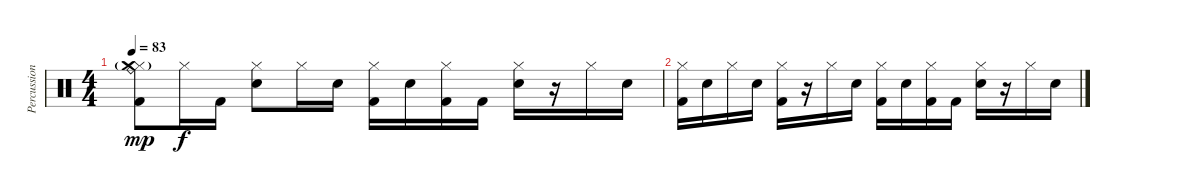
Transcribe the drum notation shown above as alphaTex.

\track ("Percussions" "Percussion") {instrument percussion}
\staff {score}
\articulation defaults
\ts (4 4)
\tempo 83
\clef neutral
\ks c
("Hi-Hat (closed)" "Kick (hit) 2" "Crash medium (hit)"{g} "Ride (bell)").8{dy mp} "Hi-Hat (closed)".16{dy f} "Kick (hit) 2".16 ("Hi-Hat (closed)" "Snare (hit) 2").8 "Hi-Hat (closed)".16 "Snare (hit) 2".16 ("Hi-Hat (closed)" "Kick (hit) 2").16 "Snare (hit) 2".16 ("Hi-Hat (closed)" "Kick (hit) 2").16 "Kick (hit) 2".16 ("Hi-Hat (closed)" "Snare (hit) 2").16 r.16 "Hi-Hat (closed)".16 "Snare (hit) 2".16 |
("Hi-Hat (closed)" "Kick (hit) 2").16 "Snare (hit) 2".16 "Hi-Hat (closed)".16 "Snare (hit) 2".16 ("Hi-Hat (closed)" "Kick (hit) 2").16 r.16 "Hi-Hat (closed)".16 "Snare (hit) 2".16 ("Hi-Hat (closed)" "Kick (hit) 2").16 "Snare (hit) 2".16 ("Hi-Hat (closed)" "Kick (hit) 2").16 "Kick (hit) 2".16 ("Hi-Hat (closed)" "Snare (hit) 2").16 r.16 "Hi-Hat (closed)".16 "Snare (hit) 2".16
